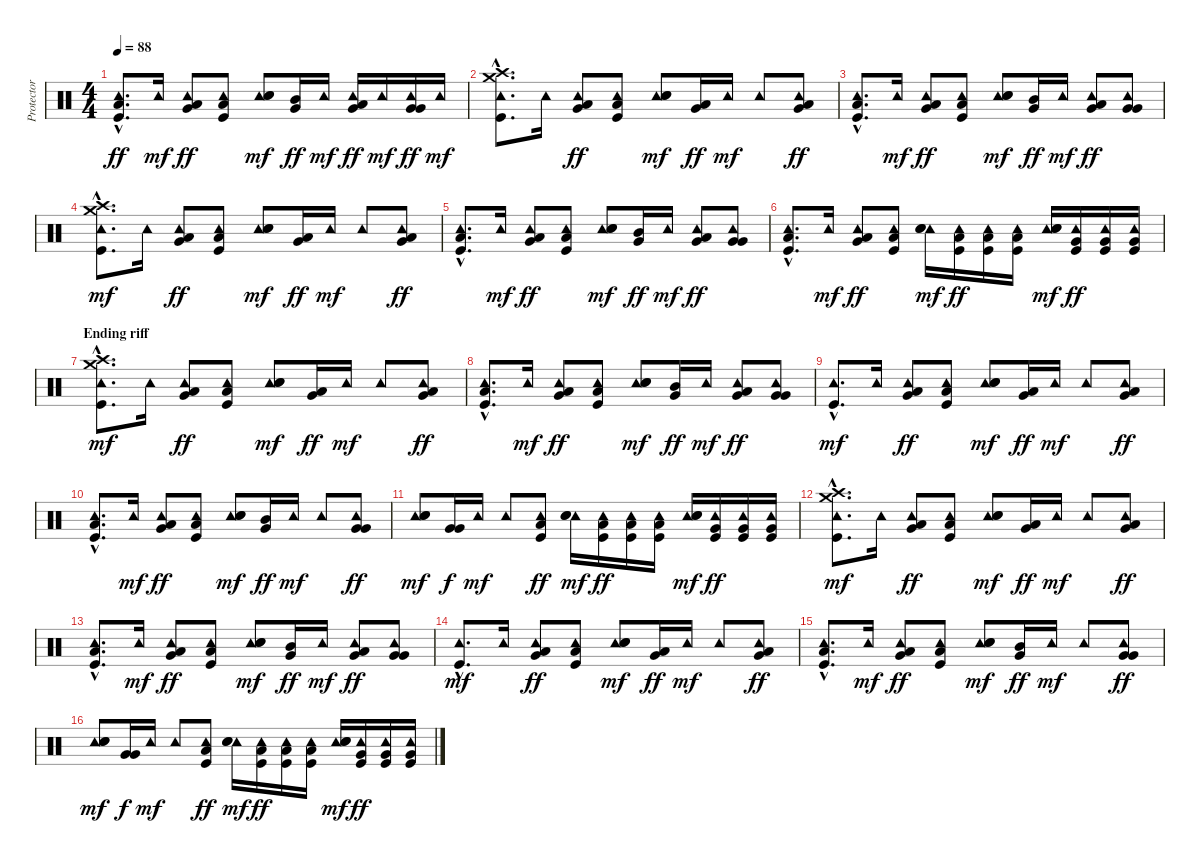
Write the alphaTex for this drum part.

\track ("Protector (Drums)" "Protector ") {instrument percussion}
\staff {score}
\articulation defaults
\ts (4 4)
\tempo 88
\clef neutral
\ks c
("Tambourine (hit)"{hac} "Low Floor Tom (hit)"{hac} "Kick (hit)"{hac}).8{d dy ff} "Tambourine (hit)".16{dy mf} ("Tambourine (hit)" "Low Tom (hit)" "Very Low Tom (hit)").8{bu 120 dy ff} ("Tambourine (hit)" "Low Floor Tom (hit)" "Kick (hit)").8 ("Tambourine (hit)" "Electric Snare (hit)" "Snare (hit) 2").8{dy mf} ("Mid Tom (hit)" "Very Low Tom (hit)").16{bu 120 dy ff} "Tambourine (hit)".16{dy mf} ("Tambourine (hit)" "Low Tom (hit)" "Very Low Tom (hit)").16{bu 120 dy ff} "Tambourine (hit)".16{dy mf} ("Tambourine (hit)" "Very Low Tom (hit)" "Very Low Tom (hit)").16{bu 120 dy ff} "Tambourine (hit)".16{dy mf} |
("Crash high (hit)"{hac} "Crash medium (hit)"{hac} "Tambourine (hit)"{hac} "Kick (hit)"{hac}).8{d} "Tambourine (hit)".16 ("Tambourine (hit)" "Low Tom (hit)" "Very Low Tom (hit)").8{bu 120 dy ff} ("Tambourine (hit)" "Low Floor Tom (hit)" "Kick (hit)").8 ("Tambourine (hit)" "Electric Snare (hit)" "Snare (hit) 2").8{dy mf} ("Low Tom (hit)" "Very Low Tom (hit)").16{bu 120 dy ff} "Tambourine (hit)".16{dy mf} "Tambourine (hit)".8 ("Tambourine (hit)" "Low Tom (hit)" "Very Low Tom (hit)").8{bu 120 dy ff} |
("Tambourine (hit)"{hac} "Low Floor Tom (hit)"{hac} "Kick (hit)"{hac}).8{d} "Tambourine (hit)".16{dy mf} ("Tambourine (hit)" "Low Tom (hit)" "Very Low Tom (hit)").8{bu 120 dy ff} ("Tambourine (hit)" "Low Floor Tom (hit)" "Kick (hit)").8 ("Tambourine (hit)" "Electric Snare (hit)" "Snare (hit) 2").8{dy mf} ("Mid Tom (hit)" "Very Low Tom (hit)").16{bu 120 dy ff} "Tambourine (hit)".16{dy mf} ("Tambourine (hit)" "Low Tom (hit)" "Very Low Tom (hit)").8{bu 120 dy ff} ("Tambourine (hit)" "Very Low Tom (hit)" "Very Low Tom (hit)").8{bu 120} |
("Crash high (hit)"{hac} "Crash medium (hit)"{hac} "Tambourine (hit)"{hac} "Kick (hit)"{hac}).8{d dy mf} "Tambourine (hit)".16 ("Tambourine (hit)" "Low Tom (hit)" "Very Low Tom (hit)").8{bu 120 dy ff} ("Tambourine (hit)" "Low Floor Tom (hit)" "Kick (hit)").8 ("Tambourine (hit)" "Electric Snare (hit)" "Snare (hit) 2").8{dy mf} ("Low Tom (hit)" "Very Low Tom (hit)").16{bu 120 dy ff} "Tambourine (hit)".16{dy mf} "Tambourine (hit)".8 ("Tambourine (hit)" "Low Tom (hit)" "Very Low Tom (hit)").8{bu 120 dy ff} |
("Tambourine (hit)"{hac} "Low Floor Tom (hit)"{hac} "Kick (hit)"{hac}).8{d} "Tambourine (hit)".16{dy mf} ("Tambourine (hit)" "Low Tom (hit)" "Very Low Tom (hit)").8{bu 120 dy ff} ("Tambourine (hit)" "Low Floor Tom (hit)" "Kick (hit)").8 ("Tambourine (hit)" "Electric Snare (hit)" "Snare (hit) 2").8{dy mf} ("Mid Tom (hit)" "Very Low Tom (hit)").16{bu 120 dy ff} "Tambourine (hit)".16{dy mf} ("Tambourine (hit)" "Low Tom (hit)" "Very Low Tom (hit)").8{bu 120 dy ff} ("Tambourine (hit)" "Very Low Tom (hit)" "Very Low Tom (hit)").8{bu 120} |
("Tambourine (hit)"{hac} "Low Floor Tom (hit)"{hac} "Kick (hit)"{hac}).8{d} "Tambourine (hit)".16{dy mf} ("Tambourine (hit)" "Low Tom (hit)" "Very Low Tom (hit)").8{bu 120 dy ff} ("Tambourine (hit)" "Low Floor Tom (hit)" "Kick (hit)").8 ("Tambourine (hit)" "Electric Snare (hit)" "Snare (hit) 2").16{dy mf} ("Tambourine (hit)" "Low Tom (hit)" "Kick (hit)").16{dy ff} ("Tambourine (hit)" "Low Tom (hit)" "Kick (hit)").16 ("Tambourine (hit)" "Low Tom (hit)" "Kick (hit)").16 ("Tambourine (hit)" "Electric Snare (hit)" "Snare (hit) 2").16{dy mf} ("Tambourine (hit)" "Very Low Tom (hit)" "Kick (hit)").16{dy ff} ("Tambourine (hit)" "Very Low Tom (hit)" "Kick (hit)").16 ("Tambourine (hit)" "Very Low Tom (hit)" "Kick (hit)").16 |
\section ("" "Ending riff")
("Crash high (hit)"{hac} "Crash medium (hit)"{hac} "Tambourine (hit)"{hac} "Kick (hit)"{hac}).8{d dy mf} "Tambourine (hit)".16 ("Tambourine (hit)" "Low Tom (hit)" "Very Low Tom (hit)").8{bu 120 dy ff} ("Tambourine (hit)" "Low Floor Tom (hit)" "Kick (hit)").8 ("Tambourine (hit)" "Electric Snare (hit)" "Snare (hit) 2").8{dy mf} ("Low Tom (hit)" "Very Low Tom (hit)").16{bu 120 dy ff} "Tambourine (hit)".16{dy mf} "Tambourine (hit)".8 ("Tambourine (hit)" "Low Tom (hit)" "Very Low Tom (hit)").8{bu 120 dy ff} |
("Tambourine (hit)"{hac} "Low Floor Tom (hit)"{hac} "Kick (hit)"{hac}).8{d} "Tambourine (hit)".16{dy mf} ("Tambourine (hit)" "Low Tom (hit)" "Very Low Tom (hit)").8{bu 120 dy ff} ("Tambourine (hit)" "Low Floor Tom (hit)" "Kick (hit)").8 ("Tambourine (hit)" "Electric Snare (hit)" "Snare (hit) 2").8{dy mf} ("Mid Tom (hit)" "Very Low Tom (hit)").16{bu 120 dy ff} "Tambourine (hit)".16{dy mf} ("Tambourine (hit)" "Low Tom (hit)" "Very Low Tom (hit)").8{bu 120 dy ff} ("Tambourine (hit)" "Very Low Tom (hit)" "Very Low Tom (hit)").8{bu 120} |
("Tambourine (hit)"{hac} "Kick (hit)"{hac}).8{d dy mf} "Tambourine (hit)".16 ("Tambourine (hit)" "Low Tom (hit)" "Very Low Tom (hit)").8{bu 120 dy ff} ("Tambourine (hit)" "Low Floor Tom (hit)" "Kick (hit)").8 ("Tambourine (hit)" "Electric Snare (hit)" "Snare (hit) 2").8{dy mf} ("Low Tom (hit)" "Very Low Tom (hit)").16{bu 120 dy ff} "Tambourine (hit)".16{dy mf} "Tambourine (hit)".8 ("Tambourine (hit)" "Low Tom (hit)" "Very Low Tom (hit)").8{bu 120 dy ff} |
("Tambourine (hit)"{hac} "Low Floor Tom (hit)"{hac} "Kick (hit)"{hac}).8{d} "Tambourine (hit)".16{dy mf} ("Tambourine (hit)" "Low Tom (hit)" "Very Low Tom (hit)").8{bu 120 dy ff} ("Tambourine (hit)" "Low Floor Tom (hit)" "Kick (hit)").8 ("Tambourine (hit)" "Electric Snare (hit)" "Snare (hit) 2").8{dy mf} ("Mid Tom (hit)" "Very Low Tom (hit)").16{bu 120 dy ff} "Tambourine (hit)".16{dy mf} "Tambourine (hit)".8{bu 120} ("Tambourine (hit)" "Very Low Tom (hit)" "Very Low Tom (hit)").8{bu 120 dy ff} |
("Tambourine (hit)" "Electric Snare (hit)" "Snare (hit) 2").8{dy mf} ("Very Low Tom (hit)" "Very Low Tom (hit)").16{bu 120 dy f} "Tambourine (hit)".16{dy mf} "Tambourine (hit)".8{bu 120} ("Tambourine (hit)" "Low Floor Tom (hit)" "Kick (hit)").8{dy ff} ("Tambourine (hit)" "Electric Snare (hit)" "Snare (hit) 2").16{dy mf} ("Tambourine (hit)" "Low Tom (hit)" "Kick (hit)").16{dy ff} ("Tambourine (hit)" "Low Tom (hit)" "Kick (hit)").16 ("Tambourine (hit)" "Low Tom (hit)" "Kick (hit)").16 ("Tambourine (hit)" "Electric Snare (hit)" "Snare (hit) 2").16{dy mf} ("Tambourine (hit)" "Very Low Tom (hit)" "Kick (hit)").16{dy ff} ("Tambourine (hit)" "Very Low Tom (hit)" "Kick (hit)").16 ("Tambourine (hit)" "Very Low Tom (hit)" "Kick (hit)").16 |
("Crash high (hit)"{hac} "Crash medium (hit)"{hac} "Tambourine (hit)"{hac} "Kick (hit)"{hac}).8{d dy mf} "Tambourine (hit)".16 ("Tambourine (hit)" "Low Tom (hit)" "Very Low Tom (hit)").8{bu 120 dy ff} ("Tambourine (hit)" "Low Floor Tom (hit)" "Kick (hit)").8 ("Tambourine (hit)" "Electric Snare (hit)" "Snare (hit) 2").8{dy mf} ("Low Tom (hit)" "Very Low Tom (hit)").16{bu 120 dy ff} "Tambourine (hit)".16{dy mf} "Tambourine (hit)".8 ("Tambourine (hit)" "Low Tom (hit)" "Very Low Tom (hit)").8{bu 120 dy ff} |
("Tambourine (hit)"{hac} "Low Floor Tom (hit)"{hac} "Kick (hit)"{hac}).8{d} "Tambourine (hit)".16{dy mf} ("Tambourine (hit)" "Low Tom (hit)" "Very Low Tom (hit)").8{bu 120 dy ff} ("Tambourine (hit)" "Low Floor Tom (hit)" "Kick (hit)").8 ("Tambourine (hit)" "Electric Snare (hit)" "Snare (hit) 2").8{dy mf} ("Mid Tom (hit)" "Very Low Tom (hit)").16{bu 120 dy ff} "Tambourine (hit)".16{dy mf} ("Tambourine (hit)" "Low Tom (hit)" "Very Low Tom (hit)").8{bu 120 dy ff} ("Tambourine (hit)" "Very Low Tom (hit)" "Very Low Tom (hit)").8{bu 120} |
("Tambourine (hit)"{hac} "Kick (hit)"{hac}).8{d dy mf} "Tambourine (hit)".16 ("Tambourine (hit)" "Low Tom (hit)" "Very Low Tom (hit)").8{bu 120 dy ff} ("Tambourine (hit)" "Low Floor Tom (hit)" "Kick (hit)").8 ("Tambourine (hit)" "Electric Snare (hit)" "Snare (hit) 2").8{dy mf} ("Low Tom (hit)" "Very Low Tom (hit)").16{bu 120 dy ff} "Tambourine (hit)".16{dy mf} "Tambourine (hit)".8 ("Tambourine (hit)" "Low Tom (hit)" "Very Low Tom (hit)").8{bu 120 dy ff} |
("Tambourine (hit)"{hac} "Low Floor Tom (hit)"{hac} "Kick (hit)"{hac}).8{d} "Tambourine (hit)".16{dy mf} ("Tambourine (hit)" "Low Tom (hit)" "Very Low Tom (hit)").8{bu 120 dy ff} ("Tambourine (hit)" "Low Floor Tom (hit)" "Kick (hit)").8 ("Tambourine (hit)" "Electric Snare (hit)" "Snare (hit) 2").8{dy mf} ("Mid Tom (hit)" "Very Low Tom (hit)").16{bu 120 dy ff} "Tambourine (hit)".16{dy mf} "Tambourine (hit)".8{bu 120} ("Tambourine (hit)" "Very Low Tom (hit)" "Very Low Tom (hit)").8{bu 120 dy ff} |
("Tambourine (hit)" "Electric Snare (hit)" "Snare (hit) 2").8{dy mf} ("Very Low Tom (hit)" "Very Low Tom (hit)").16{bu 120 dy f} "Tambourine (hit)".16{dy mf} "Tambourine (hit)".8{bu 120} ("Tambourine (hit)" "Low Floor Tom (hit)" "Kick (hit)").8{dy ff} ("Tambourine (hit)" "Electric Snare (hit)" "Snare (hit) 2").16{dy mf} ("Tambourine (hit)" "Low Tom (hit)" "Kick (hit)").16{dy ff} ("Tambourine (hit)" "Low Tom (hit)" "Kick (hit)").16 ("Tambourine (hit)" "Low Tom (hit)" "Kick (hit)").16 ("Tambourine (hit)" "Electric Snare (hit)" "Snare (hit) 2").16{dy mf} ("Tambourine (hit)" "Very Low Tom (hit)" "Kick (hit)").16{dy ff} ("Tambourine (hit)" "Very Low Tom (hit)" "Kick (hit)").16 ("Tambourine (hit)" "Very Low Tom (hit)" "Kick (hit)").16
